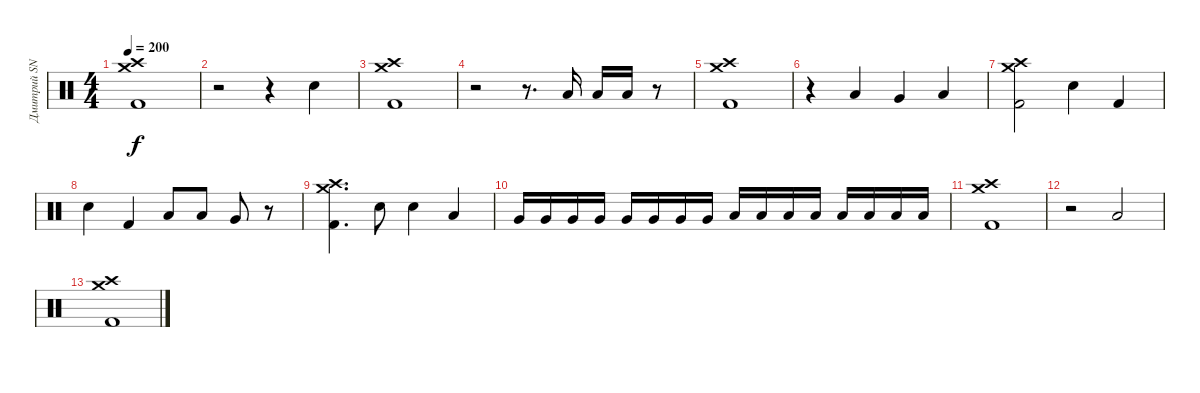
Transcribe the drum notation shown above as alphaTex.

\track ("Дмитрий SNAKE Хакимов" "Дмитрий SN") {instrument percussion}
\staff {score}
\articulation defaults
\ts (4 4)
\tempo 200
\clef neutral
\ks c
("Crash high (hit)" "Crash medium (hit)" "Kick (hit) 2").1{dy f} |
r.2 r.4 "Snare (hit) 2".4 |
("Crash high (hit)" "Crash medium (hit)" "Kick (hit) 2").1 |
r.2 r.8{d} "Low Tom (hit)".16 "Low Tom (hit)".16 "Low Tom (hit)".16 r.8 |
("Crash high (hit)" "Crash medium (hit)" "Kick (hit) 2").1 |
r.4 "Low Tom (hit)".4 "Very Low Tom (hit)".4 "Low Floor Tom (hit)".4 |
("Crash high (hit)" "Crash medium (hit)" "Kick (hit) 2").2 "Snare (hit) 2".4 "Kick (hit) 2".4 |
"Snare (hit) 2".4 "Kick (hit) 2".4 "Low Tom (hit)".8 "Low Tom (hit)".8 "Very Low Tom (hit)".8 r.8 |
("Crash high (hit)" "Crash medium (hit)" "Kick (hit) 2").4{d} "Snare (hit) 2".8 "Snare (hit) 2".4 "Low Tom (hit)".4 |
"Very Low Tom (hit)".16 "Very Low Tom (hit)".16 "Very Low Tom (hit)".16 "Very Low Tom (hit)".16 "Very Low Tom (hit)".16 "Very Low Tom (hit)".16 "Very Low Tom (hit)".16 "Very Low Tom (hit)".16 "Low Floor Tom (hit)".16 "Low Floor Tom (hit)".16 "Low Floor Tom (hit)".16 "Low Floor Tom (hit)".16 "Low Floor Tom (hit)".16 "Low Floor Tom (hit)".16 "Low Floor Tom (hit)".16 "Low Floor Tom (hit)".16 |
("Crash high (hit)" "Crash medium (hit)" "Kick (hit) 2").1 |
r.2 "Low Tom (hit)".2 |
("Crash high (hit)" "Crash medium (hit)" "Kick (hit) 2").1
